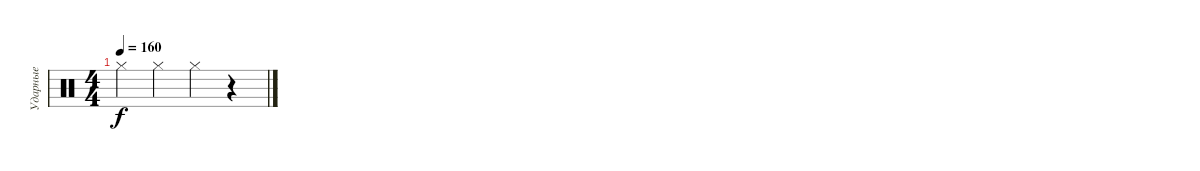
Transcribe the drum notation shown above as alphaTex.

\track ("Ударные" "Ударные") {instrument percussion}
\staff {score}
\articulation defaults
\ts (4 4)
\tempo 160
\clef neutral
\ks c "Hi-Hat (closed)".4{dy f} "Hi-Hat (closed)".4 "Hi-Hat (closed)".4
r.4
